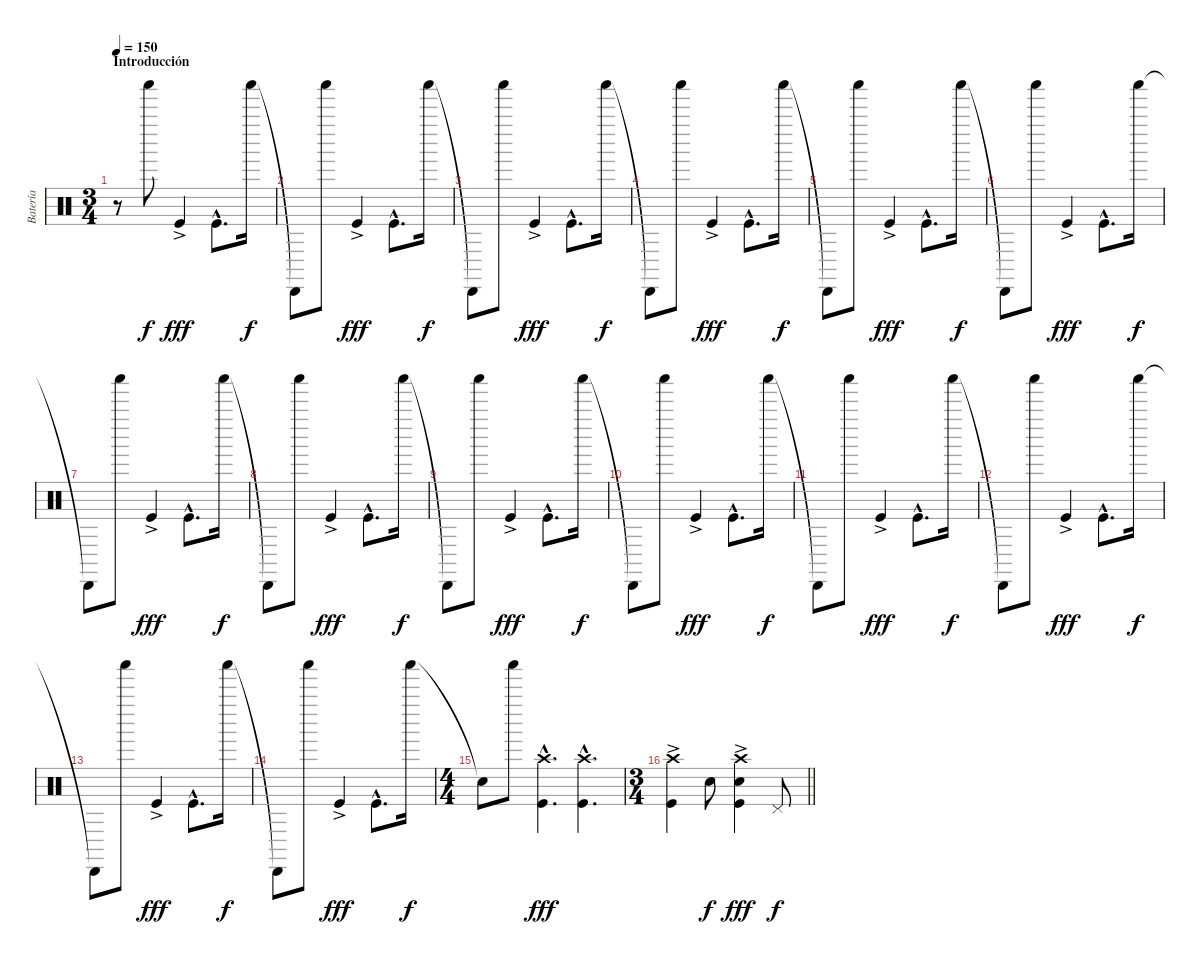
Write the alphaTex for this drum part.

\track ("Batería" "Batería") {instrument percussion}
\staff {score}
\articulation defaults
\ts (3 4)
\section ("" "Introducción")
\tempo 150
\tempo 204
\tempo 150
\clef neutral
\ks c
r.8{dy f} "Shaker (hit)".8 "Kick (hit)"{ac}.4{dy fff} "Kick (hit)"{hac}.8{d} "Shaker (hit)".16{dy f} |
"Cabasa (hit)"{t}.8 "Shaker (hit)".8 "Kick (hit)"{ac}.4{dy fff} "Kick (hit)"{hac}.8{d} "Shaker (hit)".16{dy f} |
"Cabasa (hit)"{t}.8 "Shaker (hit)".8 "Kick (hit)"{ac}.4{dy fff} "Kick (hit)"{hac}.8{d} "Shaker (hit)".16{dy f} |
"Cabasa (hit)"{t}.8 "Shaker (hit)".8 "Kick (hit)"{ac}.4{dy fff} "Kick (hit)"{hac}.8{d} "Shaker (hit)".16{dy f} |
"Cabasa (hit)"{t}.8 "Shaker (hit)".8 "Kick (hit)"{ac}.4{dy fff} "Kick (hit)"{hac}.8{d} "Shaker (hit)".16{dy f} |
"Cabasa (hit)"{t}.8 "Shaker (hit)".8 "Kick (hit)"{ac}.4{dy fff} "Kick (hit)"{hac}.8{d} "Shaker (hit)".16{dy f} |
"Cabasa (hit)"{t}.8 "Shaker (hit)".8 "Kick (hit)"{ac}.4{dy fff} "Kick (hit)"{hac}.8{d} "Shaker (hit)".16{dy f} |
"Cabasa (hit)"{t}.8 "Shaker (hit)".8 "Kick (hit)"{ac}.4{dy fff} "Kick (hit)"{hac}.8{d} "Shaker (hit)".16{dy f} |
"Cabasa (hit)"{t}.8 "Shaker (hit)".8 "Kick (hit)"{ac}.4{dy fff} "Kick (hit)"{hac}.8{d} "Shaker (hit)".16{dy f} |
"Cabasa (hit)"{t}.8 "Shaker (hit)".8 "Kick (hit)"{ac}.4{dy fff} "Kick (hit)"{hac}.8{d} "Shaker (hit)".16{dy f} |
"Cabasa (hit)"{t}.8 "Shaker (hit)".8 "Kick (hit)"{ac}.4{dy fff} "Kick (hit)"{hac}.8{d} "Shaker (hit)".16{dy f} |
"Cabasa (hit)"{t}.8 "Shaker (hit)".8 "Kick (hit)"{ac}.4{dy fff} "Kick (hit)"{hac}.8{d} "Shaker (hit)".16{dy f} |
"Cabasa (hit)"{t}.8 "Shaker (hit)".8 "Kick (hit)"{ac}.4{dy fff} "Kick (hit)"{hac}.8{d} "Shaker (hit)".16{dy f} |
"Cabasa (hit)"{t}.8 "Shaker (hit)".8 "Kick (hit)"{ac}.4{dy fff} "Kick (hit)"{hac}.8{d} "Shaker (hit)".16{dy f} |
\ts (4 4)
"Snare (hit)"{t}.8 "Shaker (hit)".8 ("Crash high (hit)"{hac} "Kick (hit)"{hac}).4{d dy fff} ("Crash high (hit)"{hac} "Kick (hit)"{hac}).4{d} |
\ts (3 4)
\barLineRight lightlight
("Crash high (hit)" "Kick (hit)"{ac}).4 "Snare (hit) 2".8{dy f} ("Crash high (hit)" "Snare (hit) 2" "Kick (hit)"{ac}).4{dy fff} "Pedal Hi-Hat (hit)".8{dy f}
